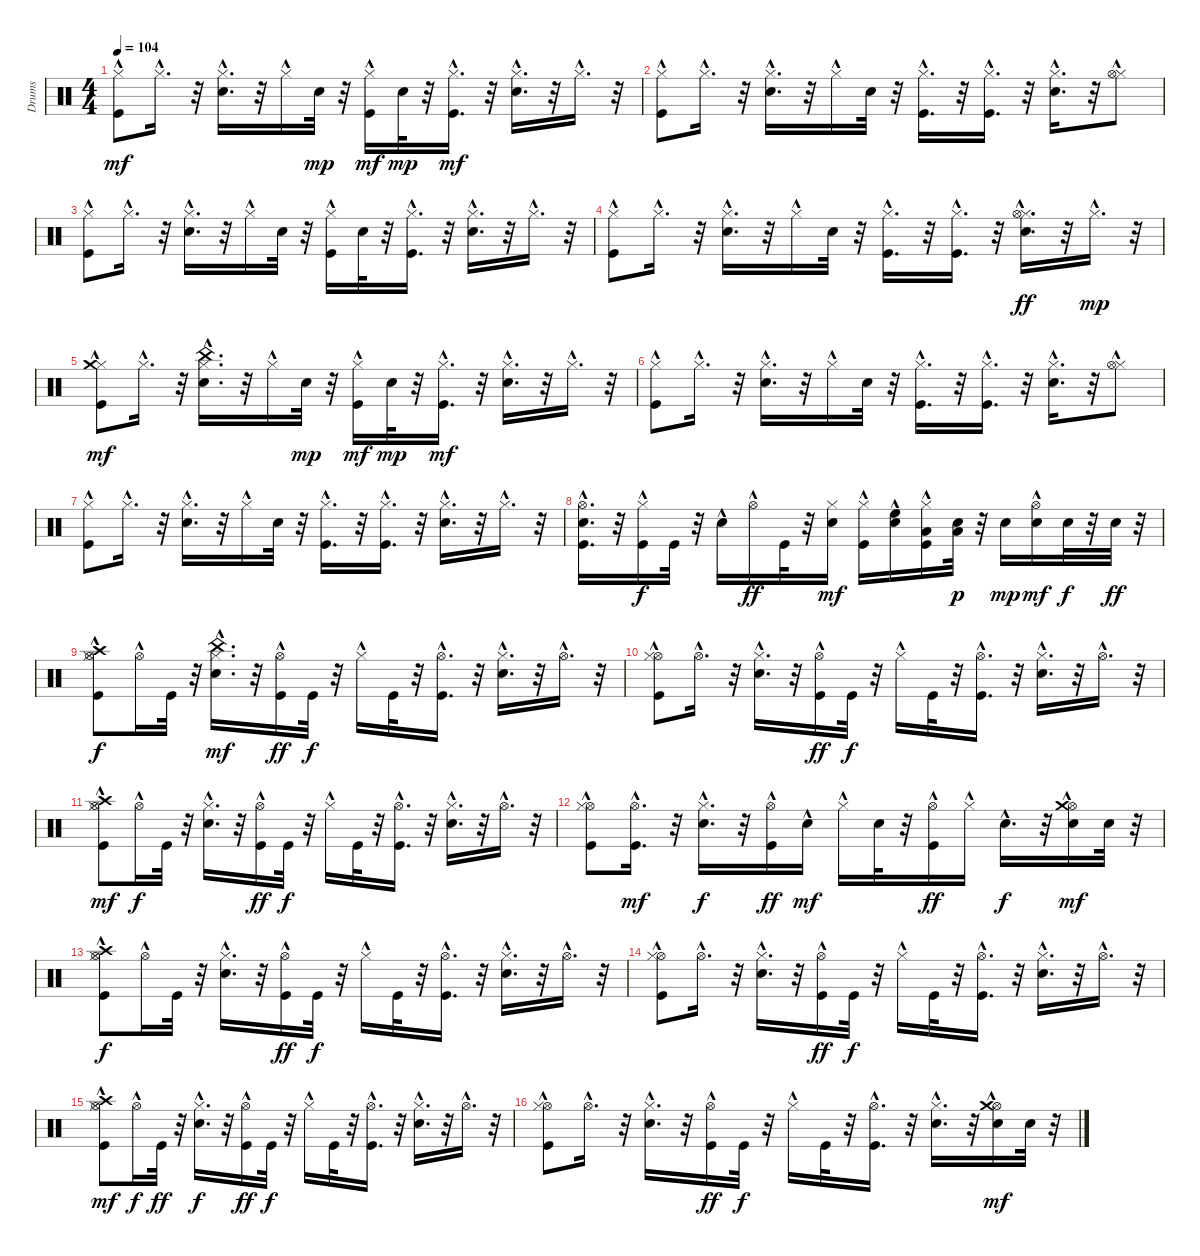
\track ("Drums" "Drums") {instrument percussion}
\staff {score}
\articulation defaults
\ts (4 4)
\tempo 104
\clef neutral
\ks c
("Hi-Hat (closed)"{hac} "Kick (hit)").8{dy mf} "Hi-Hat (closed)"{hac}.16{d} r.32 ("Hi-Hat (closed)"{hac} "Electric Snare (hit)"{hac}).16{d} r.32 "Hi-Hat (closed)"{hac}.16 "Electric Snare (hit)".32{dy mp} r.32 ("Hi-Hat (closed)"{hac} "Kick (hit)"{hac}).16{dy mf} "Electric Snare (hit)".32{dy mp} r.32 ("Hi-Hat (closed)"{hac} "Kick (hit)"{hac}).16{d dy mf} r.32 ("Hi-Hat (closed)"{hac} "Electric Snare (hit)"{hac}).16{d} r.32 "Hi-Hat (closed)"{hac}.16{d} r.32 |
("Hi-Hat (closed)"{hac} "Kick (hit)").8 "Hi-Hat (closed)"{hac}.16{d} r.32 ("Hi-Hat (closed)"{hac} "Electric Snare (hit)"{hac}).16{d} r.32 "Hi-Hat (closed)"{hac}.16 "Electric Snare (hit)".32 r.32 ("Hi-Hat (closed)"{hac} "Kick (hit)"{hac}).16{d} r.32 ("Hi-Hat (closed)"{hac} "Kick (hit)"{hac}).16{d} r.32 ("Hi-Hat (closed)"{hac} "Electric Snare (hit)"{hac}).16{d} r.32 ("Hi-Hat (closed)"{hac} "Hi-Hat (open)").8 |
("Hi-Hat (closed)"{hac} "Kick (hit)").8 "Hi-Hat (closed)"{hac}.16{d} r.32 ("Hi-Hat (closed)"{hac} "Electric Snare (hit)"{hac}).16{d} r.32 "Hi-Hat (closed)"{hac}.16 "Electric Snare (hit)".32 r.32 ("Hi-Hat (closed)"{hac} "Kick (hit)"{hac}).16 "Electric Snare (hit)".32 r.32 ("Hi-Hat (closed)"{hac} "Kick (hit)"{hac}).16{d} r.32 ("Hi-Hat (closed)"{hac} "Electric Snare (hit)"{hac}).16{d} r.32 "Hi-Hat (closed)"{hac}.16{d} r.32 |
("Hi-Hat (closed)"{hac} "Kick (hit)").8 "Hi-Hat (closed)"{hac}.16{d} r.32 ("Hi-Hat (closed)"{hac} "Electric Snare (hit)"{hac}).16{d} r.32 "Hi-Hat (closed)"{hac}.16 "Electric Snare (hit)".32 r.32 ("Hi-Hat (closed)"{hac} "Kick (hit)"{hac}).16{d} r.32 ("Hi-Hat (closed)"{hac} "Kick (hit)"{hac}).16{d} r.32 ("Hi-Hat (closed)"{hac} "Electric Snare (hit)"{hac} "Hi-Hat (open)"{hac}).16{d dy ff} r.32 "Hi-Hat (closed)"{hac}.16{d dy mp} r.32 |
("Hi-Hat (closed)"{hac} "Kick (hit)" "Crash medium (hit)"{hac}).8{dy mf} "Hi-Hat (closed)"{hac}.16{d} r.32 ("Hi-Hat (closed)"{hac} "Electric Snare (hit)"{hac} "China (hit)"{hac}).16{d} r.32 "Hi-Hat (closed)"{hac}.16 "Electric Snare (hit)".32{dy mp} r.32 ("Hi-Hat (closed)"{hac} "Kick (hit)"{hac}).16{dy mf} "Electric Snare (hit)".32{dy mp} r.32 ("Hi-Hat (closed)"{hac} "Kick (hit)"{hac}).16{d dy mf} r.32 ("Hi-Hat (closed)"{hac} "Electric Snare (hit)"{hac}).16{d} r.32 "Hi-Hat (closed)"{hac}.16{d} r.32 |
("Hi-Hat (closed)"{hac} "Kick (hit)").8 "Hi-Hat (closed)"{hac}.16{d} r.32 ("Hi-Hat (closed)"{hac} "Electric Snare (hit)"{hac}).16{d} r.32 "Hi-Hat (closed)"{hac}.16 "Electric Snare (hit)".32 r.32 ("Hi-Hat (closed)"{hac} "Kick (hit)"{hac}).16{d} r.32 ("Hi-Hat (closed)"{hac} "Kick (hit)"{hac}).16{d} r.32 ("Hi-Hat (closed)"{hac} "Electric Snare (hit)"{hac}).16{d} r.32 ("Hi-Hat (closed)"{hac} "Hi-Hat (open)").8 |
("Hi-Hat (closed)"{hac} "Kick (hit)").8 "Hi-Hat (closed)"{hac}.16{d} r.32 ("Hi-Hat (closed)"{hac} "Electric Snare (hit)"{hac}).16{d} r.32 "Hi-Hat (closed)"{hac}.16 "Electric Snare (hit)".32 r.32 ("Hi-Hat (closed)"{hac} "Kick (hit)"{hac}).16{d} r.32 ("Hi-Hat (closed)"{hac} "Kick (hit)"{hac}).16{d} r.32 ("Hi-Hat (closed)"{hac} "Electric Snare (hit)"{hac}).16{d} r.32 "Hi-Hat (closed)"{hac}.16{d} r.32 |
("Kick (hit)" "Electric Snare (hit)"{hac} "Hi-Hat (open)"{hac}).16{d} r.32 ("Hi-Hat (closed)"{hac} "Kick (hit)").16{dy f} "Kick (hit)".32 r.32 "Electric Snare (hit)"{hac}.16 "Hi-Hat (open)"{hac}.16{dy ff} "Kick (hit)".32 r.32 ("Electric Snare (hit)" "Hi-Hat (closed)").16{dy mf} ("Kick (hit)"{hac} "Hi-Hat (closed)"{hac}).16 ("Electric Snare (hit)"{hac} "High Floor Tom (hit)").16 ("Kick (hit)"{hac} "Hi-Hat (closed)"{hac} "Low Tom (hit)").16 ("Low Floor Tom (hit)" "Electric Snare (hit)").32{dy p} r.32 "Electric Snare (hit)".16{dy mp} ("Electric Snare (hit)" "Hi-Hat (open)"{hac}).16{dy mf} "Electric Snare (hit)".32{dy f} r.32 "Electric Snare (hit)".32{dy ff} r.32 |
("Hi-Hat (open)" "Hi-Hat (closed)"{hac} "Kick (hit)" "Crash high (hit)"{hac}).8{dy f} "Hi-Hat (open)"{hac}.16 "Kick (hit)".32 r.32 ("Hi-Hat (closed)"{hac} "Electric Snare (hit)"{hac} "China (hit)"{hac}).16{d dy mf} r.32 ("Hi-Hat (open)"{hac} "Kick (hit)").16{dy ff} "Kick (hit)".32{dy f} r.32 "Hi-Hat (closed)"{hac}.16 "Kick (hit)".32 r.32 ("Hi-Hat (open)"{hac} "Kick (hit)").16{d} r.32 ("Hi-Hat (closed)"{hac} "Electric Snare (hit)"{hac}).16{d} r.32 "Hi-Hat (open)"{hac}.16{d} r.32 |
("Hi-Hat (open)" "Hi-Hat (closed)"{hac} "Kick (hit)").8 "Hi-Hat (open)"{hac}.16{d} r.32 ("Hi-Hat (closed)"{hac} "Electric Snare (hit)"{hac}).16{d} r.32 ("Hi-Hat (open)"{hac} "Kick (hit)").16{dy ff} "Kick (hit)".32{dy f} r.32 "Hi-Hat (closed)"{hac}.16 "Kick (hit)".32 r.32 ("Hi-Hat (open)"{hac} "Kick (hit)").16{d} r.32 ("Hi-Hat (closed)"{hac} "Electric Snare (hit)"{hac}).16{d} r.32 "Hi-Hat (open)"{hac}.16{d} r.32 |
("Hi-Hat (open)" "Hi-Hat (closed)"{hac} "Kick (hit)" "Crash high (hit)"{hac}).8{dy mf} "Hi-Hat (open)"{hac}.16{dy f} "Kick (hit)".32 r.32 ("Hi-Hat (closed)"{hac} "Electric Snare (hit)"{hac}).16{d} r.32 ("Hi-Hat (open)"{hac} "Kick (hit)").16{dy ff} "Kick (hit)".32{dy f} r.32 "Hi-Hat (closed)"{hac}.16 "Kick (hit)".32 r.32 ("Hi-Hat (open)"{hac} "Kick (hit)").16{d} r.32 ("Hi-Hat (closed)"{hac} "Electric Snare (hit)"{hac}).16{d} r.32 "Hi-Hat (open)"{hac}.16{d} r.32 |
("Hi-Hat (open)" "Hi-Hat (closed)"{hac} "Kick (hit)").8 ("Hi-Hat (open)"{hac} "Kick (hit)"{hac}).16{d dy mf} r.32 ("Hi-Hat (closed)"{hac} "Electric Snare (hit)"{hac}).16{d dy f} r.32 ("Hi-Hat (open)"{hac} "Kick (hit)").16{dy ff} "Electric Snare (hit)"{hac}.16{dy mf} "Hi-Hat (closed)"{hac}.16 "Electric Snare (hit)".32 r.32 ("Kick (hit)" "Hi-Hat (open)"{hac}).16{dy ff} "Hi-Hat (closed)"{hac}.16 "Electric Snare (hit)"{hac}.16{d dy f} r.32 ("Hi-Hat (open)"{hac} "Electric Snare (hit)" "Crash medium (hit)"{hac}).16{dy mf} "Electric Snare (hit)".32 r.32 |
("Hi-Hat (open)" "Hi-Hat (closed)"{hac} "Kick (hit)" "Crash high (hit)"{hac}).8{dy f} "Hi-Hat (open)"{hac}.16 "Kick (hit)".32 r.32 ("Hi-Hat (closed)"{hac} "Electric Snare (hit)"{hac}).16{d} r.32 ("Hi-Hat (open)"{hac} "Kick (hit)").16{dy ff} "Kick (hit)".32{dy f} r.32 "Hi-Hat (closed)"{hac}.16 "Kick (hit)".32 r.32 ("Hi-Hat (open)"{hac} "Kick (hit)").16{d} r.32 ("Hi-Hat (closed)"{hac} "Electric Snare (hit)"{hac}).16{d} r.32 "Hi-Hat (open)"{hac}.16{d} r.32 |
("Hi-Hat (open)" "Hi-Hat (closed)"{hac} "Kick (hit)").8 "Hi-Hat (open)"{hac}.16{d} r.32 ("Hi-Hat (closed)"{hac} "Electric Snare (hit)"{hac}).16{d} r.32 ("Hi-Hat (open)"{hac} "Kick (hit)").16{dy ff} "Kick (hit)".32{dy f} r.32 "Hi-Hat (closed)"{hac}.16 "Kick (hit)".32 r.32 ("Hi-Hat (open)"{hac} "Kick (hit)").16{d} r.32 ("Hi-Hat (closed)"{hac} "Electric Snare (hit)"{hac}).16{d} r.32 "Hi-Hat (open)"{hac}.16{d} r.32 |
("Hi-Hat (open)" "Hi-Hat (closed)"{hac} "Kick (hit)" "Crash high (hit)"{hac}).8{dy mf} "Hi-Hat (open)"{hac}.16{dy f} "Kick (hit)".32{dy ff} r.32 ("Hi-Hat (closed)"{hac} "Electric Snare (hit)"{hac}).16{d dy f} r.32 ("Hi-Hat (open)"{hac} "Kick (hit)").16{dy ff} "Kick (hit)".32{dy f} r.32 "Hi-Hat (closed)"{hac}.16 "Kick (hit)".32 r.32 ("Hi-Hat (open)"{hac} "Kick (hit)").16{d} r.32 ("Hi-Hat (closed)"{hac} "Electric Snare (hit)"{hac}).16{d} r.32 "Hi-Hat (open)"{hac}.16{d} r.32 |
("Hi-Hat (open)" "Hi-Hat (closed)"{hac} "Kick (hit)").8 "Hi-Hat (open)"{hac}.16{d} r.32 ("Hi-Hat (closed)"{hac} "Electric Snare (hit)"{hac}).16{d} r.32 ("Hi-Hat (open)"{hac} "Kick (hit)").16{dy ff} "Kick (hit)".32{dy f} r.32 "Hi-Hat (closed)"{hac}.16 "Kick (hit)".32 r.32 ("Hi-Hat (open)"{hac} "Kick (hit)").16{d} r.32 ("Electric Snare (hit)"{hac} "Hi-Hat (closed)"{hac}).16{d} r.32 ("Hi-Hat (open)"{hac} "Crash medium (hit)"{hac} "Electric Snare (hit)").16{dy mf} "Electric Snare (hit)".32 r.32
